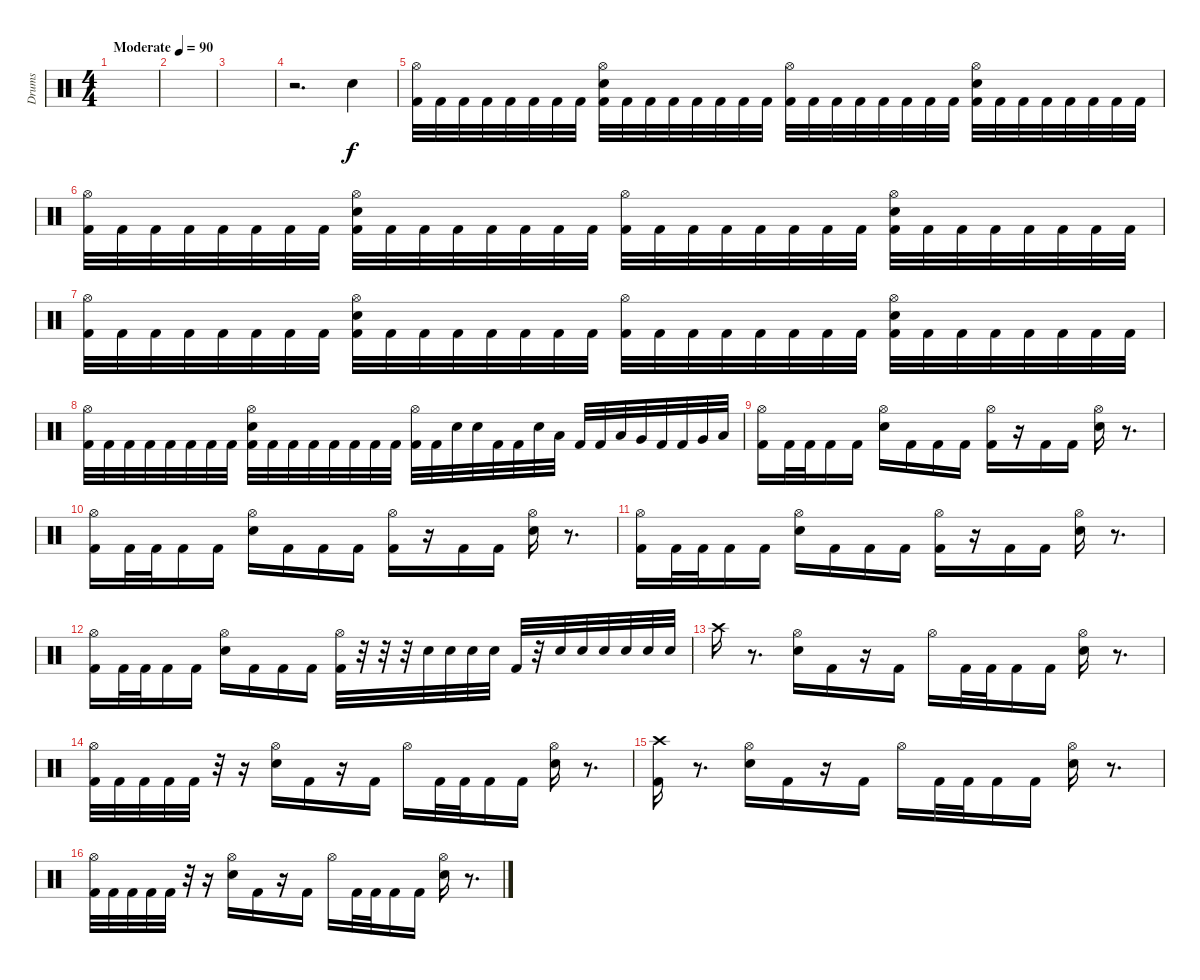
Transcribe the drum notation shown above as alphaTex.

\track ("Drums" "Drums") {instrument percussion}
\staff {score}
\articulation defaults
\ts (4 4)
\tempo (90 "Moderate")
\clef neutral
\ks c
|
|
|
r.2{d} "Electric Snare (hit)".4 |
("Kick (hit) 2" "Hi-Hat (open)").32 "Kick (hit) 2".32 "Kick (hit) 2".32 "Kick (hit) 2".32 "Kick (hit) 2".32 "Kick (hit) 2".32 "Kick (hit) 2".32 "Kick (hit) 2".32 ("Kick (hit) 2" "Electric Snare (hit)" "Hi-Hat (open)").32 "Kick (hit) 2".32 "Kick (hit) 2".32 "Kick (hit) 2".32 "Kick (hit) 2".32 "Kick (hit) 2".32 "Kick (hit) 2".32 "Kick (hit) 2".32 ("Kick (hit) 2" "Hi-Hat (open)").32 "Kick (hit) 2".32 "Kick (hit) 2".32 "Kick (hit) 2".32 "Kick (hit) 2".32 "Kick (hit) 2".32 "Kick (hit) 2".32 "Kick (hit) 2".32 ("Kick (hit) 2" "Electric Snare (hit)" "Hi-Hat (open)").32 "Kick (hit) 2".32 "Kick (hit) 2".32 "Kick (hit) 2".32 "Kick (hit) 2".32 "Kick (hit) 2".32 "Kick (hit) 2".32 "Kick (hit) 2".32 |
("Kick (hit) 2" "Hi-Hat (open)").32 "Kick (hit) 2".32 "Kick (hit) 2".32 "Kick (hit) 2".32 "Kick (hit) 2".32 "Kick (hit) 2".32 "Kick (hit) 2".32 "Kick (hit) 2".32 ("Kick (hit) 2" "Electric Snare (hit)" "Hi-Hat (open)").32 "Kick (hit) 2".32 "Kick (hit) 2".32 "Kick (hit) 2".32 "Kick (hit) 2".32 "Kick (hit) 2".32 "Kick (hit) 2".32 "Kick (hit) 2".32 ("Kick (hit) 2" "Hi-Hat (open)").32 "Kick (hit) 2".32 "Kick (hit) 2".32 "Kick (hit) 2".32 "Kick (hit) 2".32 "Kick (hit) 2".32 "Kick (hit) 2".32 "Kick (hit) 2".32 ("Kick (hit) 2" "Electric Snare (hit)" "Hi-Hat (open)").32 "Kick (hit) 2".32 "Kick (hit) 2".32 "Kick (hit) 2".32 "Kick (hit) 2".32 "Kick (hit) 2".32 "Kick (hit) 2".32 "Kick (hit) 2".32 |
("Kick (hit) 2" "Hi-Hat (open)").32 "Kick (hit) 2".32 "Kick (hit) 2".32 "Kick (hit) 2".32 "Kick (hit) 2".32 "Kick (hit) 2".32 "Kick (hit) 2".32 "Kick (hit) 2".32 ("Kick (hit) 2" "Electric Snare (hit)" "Hi-Hat (open)").32 "Kick (hit) 2".32 "Kick (hit) 2".32 "Kick (hit) 2".32 "Kick (hit) 2".32 "Kick (hit) 2".32 "Kick (hit) 2".32 "Kick (hit) 2".32 ("Kick (hit) 2" "Hi-Hat (open)").32 "Kick (hit) 2".32 "Kick (hit) 2".32 "Kick (hit) 2".32 "Kick (hit) 2".32 "Kick (hit) 2".32 "Kick (hit) 2".32 "Kick (hit) 2".32 ("Kick (hit) 2" "Electric Snare (hit)" "Hi-Hat (open)").32 "Kick (hit) 2".32 "Kick (hit) 2".32 "Kick (hit) 2".32 "Kick (hit) 2".32 "Kick (hit) 2".32 "Kick (hit) 2".32 "Kick (hit) 2".32 |
("Kick (hit) 2" "Hi-Hat (open)").32 "Kick (hit) 2".32 "Kick (hit) 2".32 "Kick (hit) 2".32 "Kick (hit) 2".32 "Kick (hit) 2".32 "Kick (hit) 2".32 "Kick (hit) 2".32 ("Kick (hit) 2" "Electric Snare (hit)" "Hi-Hat (open)").32 "Kick (hit) 2".32 "Kick (hit) 2".32 "Kick (hit) 2".32 "Kick (hit) 2".32 "Kick (hit) 2".32 "Kick (hit) 2".32 "Kick (hit) 2".32 ("Kick (hit) 2" "Hi-Hat (open)").32 "Kick (hit) 2".32 "Electric Snare (hit)".32 "Electric Snare (hit)".32 "Kick (hit) 2".32 "Kick (hit) 2".32 "Electric Snare (hit)".32 "Low Tom (hit)".32 "Kick (hit) 2".32 "Kick (hit) 2".32 "Low Tom (hit)".32 "Very Low Tom (hit)".32 "Kick (hit) 2".32 "Kick (hit) 2".32 "Very Low Tom (hit)".32 "Low Floor Tom (hit)".32 |
("Kick (hit) 2" "Hi-Hat (open)").16 "Kick (hit) 2".32 "Kick (hit) 2".32 "Kick (hit) 2".16 "Kick (hit) 2".16 ("Electric Snare (hit)" "Hi-Hat (open)").16 "Kick (hit) 2".16 "Kick (hit) 2".16 "Kick (hit) 2".16 ("Kick (hit) 2" "Hi-Hat (open)").16 r.16 "Kick (hit) 2".16 "Kick (hit) 2".16 ("Electric Snare (hit)" "Hi-Hat (open)").16 r.8{d} |
("Kick (hit) 2" "Hi-Hat (open)").16 "Kick (hit) 2".32 "Kick (hit) 2".32 "Kick (hit) 2".16 "Kick (hit) 2".16 ("Electric Snare (hit)" "Hi-Hat (open)").16 "Kick (hit) 2".16 "Kick (hit) 2".16 "Kick (hit) 2".16 ("Kick (hit) 2" "Hi-Hat (open)").16 r.16 "Kick (hit) 2".16 "Kick (hit) 2".16 ("Electric Snare (hit)" "Hi-Hat (open)").16 r.8{d} |
("Kick (hit) 2" "Hi-Hat (open)").16 "Kick (hit) 2".32 "Kick (hit) 2".32 "Kick (hit) 2".16 "Kick (hit) 2".16 ("Electric Snare (hit)" "Hi-Hat (open)").16 "Kick (hit) 2".16 "Kick (hit) 2".16 "Kick (hit) 2".16 ("Kick (hit) 2" "Hi-Hat (open)").16 r.16 "Kick (hit) 2".16 "Kick (hit) 2".16 ("Electric Snare (hit)" "Hi-Hat (open)").16 r.8{d} |
("Kick (hit) 2" "Hi-Hat (open)").16 "Kick (hit) 2".32 "Kick (hit) 2".32 "Kick (hit) 2".16 "Kick (hit) 2".16 ("Electric Snare (hit)" "Hi-Hat (open)").16 "Kick (hit) 2".16 "Kick (hit) 2".16 "Kick (hit) 2".16 ("Kick (hit) 2" "Hi-Hat (open)").32 r.32 r.32 r.32 "Electric Snare (hit)".32 "Electric Snare (hit)".32 "Electric Snare (hit)".32 "Electric Snare (hit)".32 "Kick (hit) 2".32 r.32 "Electric Snare (hit)".32 "Electric Snare (hit)".32 "Electric Snare (hit)".32 "Electric Snare (hit)".32 "Electric Snare (hit)".32 "Electric Snare (hit)".32 |
"Crash high (hit)".16 r.8{d} ("Electric Snare (hit)" "Hi-Hat (open)").16 "Kick (hit) 2".16 r.16 "Kick (hit) 2".16 "Hi-Hat (open)".16 "Kick (hit) 2".32 "Kick (hit) 2".32 "Kick (hit) 2".16 "Kick (hit) 2".16 ("Electric Snare (hit)" "Hi-Hat (open)").16 r.8{d} |
("Kick (hit) 2" "Hi-Hat (open)").32 "Kick (hit) 2".32 "Kick (hit) 2".32 "Kick (hit) 2".32 "Kick (hit) 2".32 r.32 r.16 ("Electric Snare (hit)" "Hi-Hat (open)").16 "Kick (hit) 2".16 r.16 "Kick (hit) 2".16 "Hi-Hat (open)".16 "Kick (hit) 2".32 "Kick (hit) 2".32 "Kick (hit) 2".16 "Kick (hit) 2".16 ("Electric Snare (hit)" "Hi-Hat (open)").16 r.8{d} |
("Crash high (hit)" "Kick (hit) 2").16 r.8{d} ("Electric Snare (hit)" "Hi-Hat (open)").16 "Kick (hit) 2".16 r.16 "Kick (hit) 2".16 "Hi-Hat (open)".16 "Kick (hit) 2".32 "Kick (hit) 2".32 "Kick (hit) 2".16 "Kick (hit) 2".16 ("Electric Snare (hit)" "Hi-Hat (open)").16 r.8{d} |
("Kick (hit) 2" "Hi-Hat (open)").32 "Kick (hit) 2".32 "Kick (hit) 2".32 "Kick (hit) 2".32 "Kick (hit) 2".32 r.32 r.16 ("Electric Snare (hit)" "Hi-Hat (open)").16 "Kick (hit) 2".16 r.16 "Kick (hit) 2".16 "Hi-Hat (open)".16 "Kick (hit) 2".32 "Kick (hit) 2".32 "Kick (hit) 2".16 "Kick (hit) 2".16 ("Electric Snare (hit)" "Hi-Hat (open)").16 r.8{d}
